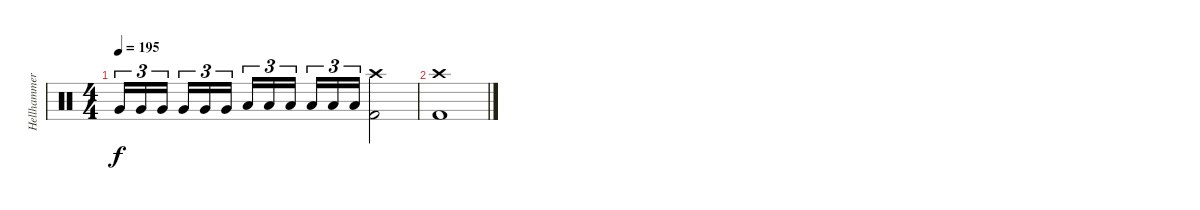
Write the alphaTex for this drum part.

\track ("Hellhammer" "Hellhammer") {instrument percussion}
\staff {score}
\articulation defaults
\ts (4 4)
\tempo 195
\clef neutral
\ks c "Very Low Tom (hit)".16{tu (3 2) dy f} "Very Low Tom (hit)".16{tu (3 2)} "Very Low Tom (hit)".16{tu (3 2) beam splitsecondary} "Very Low Tom (hit)".16{tu (3 2)} "Very Low Tom (hit)".16{tu (3 2)} "Very Low Tom (hit)".16{tu (3 2)} "Low Floor Tom (hit)".16{tu (3 2)} "Low Floor Tom (hit)".16{tu (3 2)} "Low Floor Tom (hit)".16{tu (3 2) beam splitsecondary} "Low Floor Tom (hit)".16{tu (3 2)} "Low Floor Tom (hit)".16{tu (3 2)} "Low Floor Tom (hit)".16{tu (3 2)}
("Crash high (hit)" "Kick (hit) 2").2 |
("Crash high (hit)" "Kick (hit) 2").1
